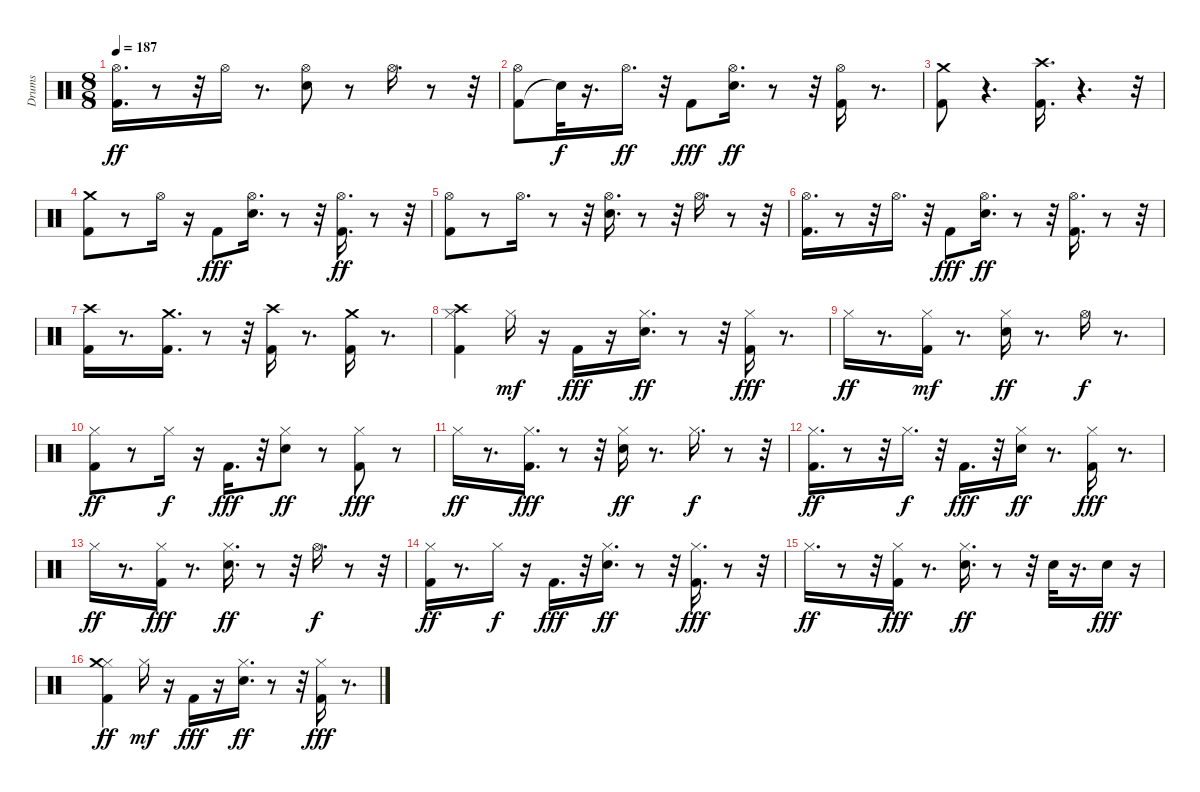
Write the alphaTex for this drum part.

\track ("Drums" "Drums") {instrument percussion}
\staff {score}
\articulation defaults
\ts (8 8)
\tempo 187
\clef neutral
\ks c
("Kick (hit) 2" "Hi-Hat (open)").16{d dy ff} r.8 r.32 "Hi-Hat (open)".16 r.8{d} ("Snare (hit) 2" "Hi-Hat (open)").8 r.8 "Hi-Hat (open)".16{d} r.8 r.32 |
("Kick (hit) 2" "Hi-Hat (open)").8 "Snare (hit)"{t}.32{dy f} r.16{d} "Hi-Hat (open)".16{d dy ff} r.32 "Kick (hit) 2".8{dy fff} ("Snare (hit) 2" "Hi-Hat (open)").16{d dy ff} r.8 r.32 ("Kick (hit) 2" "Hi-Hat (open)").16 r.8{d} |
("Kick (hit) 2" "Crash medium (hit)").8 r.4{d} ("Kick (hit) 2" "Crash high (hit)").16{d} r.4{d} r.32 |
("Kick (hit) 2" "Crash medium (hit)").8 r.8 "Hi-Hat (open)".16 r.16 "Kick (hit) 2".8{dy fff} ("Snare (hit) 2" "Hi-Hat (open)").16{d} r.8 r.32 ("Kick (hit) 2" "Hi-Hat (open)").16{d dy ff} r.8 r.32 |
("Kick (hit) 2" "Hi-Hat (open)").8 r.8 "Hi-Hat (open)".16{d} r.8 r.32 ("Snare (hit) 2" "Hi-Hat (open)").16{d} r.8 r.32 "Hi-Hat (open)".16{d} r.8 r.32 |
("Kick (hit) 2" "Hi-Hat (open)").16{d} r.8 r.32 "Hi-Hat (open)".16{d} r.32 "Kick (hit) 2".8{dy fff} ("Snare (hit) 2" "Hi-Hat (open)").16{d dy ff} r.8 r.32 ("Kick (hit) 2" "Hi-Hat (open)").16{d} r.8 r.32 |
("Kick (hit) 2" "Crash high (hit)").16 r.8{d} ("Kick (hit) 2" "Crash medium (hit)").16{d} r.8 r.32 ("Kick (hit) 2" "Crash high (hit)").16 r.8{d} ("Kick (hit) 2" "Crash medium (hit)").16 r.8{d} |
("Kick (hit) 2" "Hi-Hat (closed)" "Crash high (hit)").4 "Hi-Hat (closed)".16{dy mf} r.16 "Kick (hit) 2".16{dy fff} r.16 ("Snare (hit) 2" "Hi-Hat (closed)").16{d dy ff} r.8 r.32 ("Kick (hit) 2" "Hi-Hat (closed)").16{dy fff} r.8{d} |
"Hi-Hat (closed)".16{dy ff} r.8{d} ("Kick (hit) 2" "Hi-Hat (closed)").16{dy mf} r.8{d} ("Snare (hit) 2" "Hi-Hat (closed)").16{dy ff} r.8{d} "Hi-Hat (open)".16{dy f} r.8{d} |
("Kick (hit) 2" "Hi-Hat (closed)").8{dy ff} r.8 "Hi-Hat (closed)".16{dy f} r.16 "Kick (hit) 2".16{d dy fff} r.32 ("Snare (hit) 2" "Hi-Hat (closed)").8{dy ff} r.8 ("Kick (hit) 2" "Hi-Hat (closed)").8{dy fff} r.8 |
"Hi-Hat (closed)".16{dy ff} r.8{d} ("Kick (hit) 2" "Hi-Hat (closed)").16{d dy fff} r.8 r.32 ("Snare (hit) 2" "Hi-Hat (closed)").16{dy ff} r.8{d} "Hi-Hat (closed)".16{d dy f} r.8 r.32 |
("Kick (hit) 2" "Hi-Hat (closed)").16{d dy ff} r.8 r.32 "Hi-Hat (closed)".16{d dy f} r.32 "Kick (hit) 2".16{d dy fff} r.32 ("Snare (hit) 2" "Hi-Hat (closed)").16{dy ff} r.8{d} ("Kick (hit) 2" "Hi-Hat (closed)").16{dy fff} r.8{d} |
"Hi-Hat (closed)".16{dy ff} r.8{d} ("Kick (hit) 2" "Hi-Hat (closed)").16{dy fff} r.8{d} ("Snare (hit) 2" "Hi-Hat (closed)").16{d dy ff} r.8 r.32 "Hi-Hat (open)".16{d dy f} r.8 r.32 |
("Kick (hit) 2" "Hi-Hat (closed)").16{dy ff} r.8{d} "Hi-Hat (closed)".16{dy f} r.16 "Kick (hit) 2".16{d dy fff} r.32 ("Snare (hit) 2" "Hi-Hat (closed)").16{d dy ff} r.8 r.32 ("Kick (hit) 2" "Hi-Hat (closed)").16{d dy fff} r.8 r.32 |
"Hi-Hat (closed)".16{d dy ff} r.8 r.32 ("Kick (hit) 2" "Hi-Hat (closed)").16{dy fff} r.8{d} ("Snare (hit) 2" "Hi-Hat (closed)").16{d dy ff} r.8 r.32 "Snare (hit) 2".32 r.16{d} "Snare (hit) 2".16{dy fff} r.16 |
("Kick (hit) 2" "Hi-Hat (closed)" "Crash medium (hit)").4{dy ff} "Hi-Hat (closed)".16{dy mf} r.16 "Kick (hit) 2".16{dy fff} r.16 ("Snare (hit) 2" "Hi-Hat (closed)").16{d dy ff} r.8 r.32 ("Kick (hit) 2" "Hi-Hat (closed)").16{dy fff} r.8{d}
